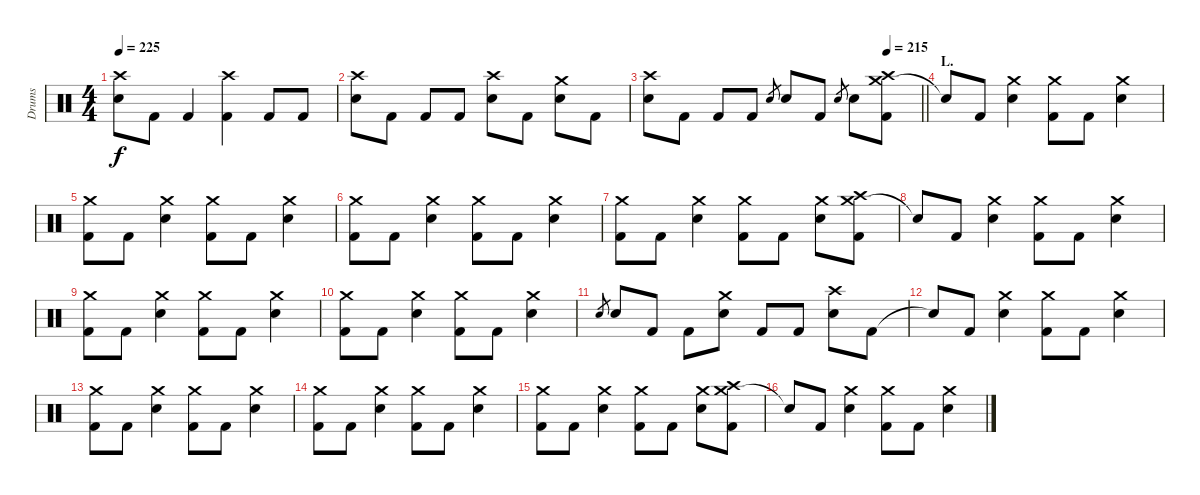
\track ("Drums" "Drums") {instrument percussion}
\staff {score}
\articulation defaults
\ts (4 4)
\tempo 225
\clef neutral
\ks c
("Crash high (hit)" "Electric Snare (hit)").8{dy f} "Kick (hit) 2".8 "Kick (hit) 2".4 ("Crash high (hit)" "Kick (hit) 2").4 "Kick (hit) 2".8 "Kick (hit) 2".8 |
("Crash high (hit)" "Electric Snare (hit)").8 "Kick (hit) 2".8 "Kick (hit) 2".8 "Kick (hit) 2".8 ("Crash high (hit)" "Electric Snare (hit)").8 "Kick (hit) 2".8 ("Crash medium (hit)" "Electric Snare (hit)").8 "Kick (hit) 2".8 |
\tempo (215 0.875)
\barLineRight lightlight
("Crash high (hit)" "Electric Snare (hit)").8 "Kick (hit) 2".8 "Kick (hit) 2".8 "Kick (hit) 2".8 "Electric Snare (hit)".8{gr} "Electric Snare (hit)".8 "Kick (hit) 2".8 "Electric Snare (hit)".8{gr} "Electric Snare (hit)".8 ("Crash medium (hit)" "Crash high (hit)" "Kick (hit) 2").8 |
\section ("" "L.")
"Snare (hit)"{t}.8 "Kick (hit) 2".8 ("Crash medium (hit)" "Electric Snare (hit)").4 ("Crash medium (hit)" "Kick (hit) 2").8 "Kick (hit) 2".8 ("Crash medium (hit)" "Electric Snare (hit)").4 |
("Crash medium (hit)" "Kick (hit) 2").8 "Kick (hit) 2".8 ("Crash medium (hit)" "Electric Snare (hit)").4 ("Crash medium (hit)" "Kick (hit) 2").8 "Kick (hit) 2".8 ("Crash medium (hit)" "Electric Snare (hit)").4 |
("Crash medium (hit)" "Kick (hit) 2").8 "Kick (hit) 2".8 ("Crash medium (hit)" "Electric Snare (hit)").4 ("Crash medium (hit)" "Kick (hit) 2").8 "Kick (hit) 2".8 ("Crash medium (hit)" "Electric Snare (hit)").4 |
("Crash medium (hit)" "Kick (hit) 2").8 "Kick (hit) 2".8 ("Crash medium (hit)" "Electric Snare (hit)").4 ("Crash medium (hit)" "Kick (hit) 2").8 "Kick (hit) 2".8 ("Crash medium (hit)" "Electric Snare (hit)").8 ("Crash medium (hit)" "Crash high (hit)" "Kick (hit) 2").8 |
"Snare (hit)"{t}.8 "Kick (hit) 2".8 ("Crash medium (hit)" "Electric Snare (hit)").4 ("Crash medium (hit)" "Kick (hit) 2").8 "Kick (hit) 2".8 ("Crash medium (hit)" "Electric Snare (hit)").4 |
("Crash medium (hit)" "Kick (hit) 2").8 "Kick (hit) 2".8 ("Crash medium (hit)" "Electric Snare (hit)").4 ("Crash medium (hit)" "Kick (hit) 2").8 "Kick (hit) 2".8 ("Crash medium (hit)" "Electric Snare (hit)").4 |
("Crash medium (hit)" "Kick (hit) 2").8 "Kick (hit) 2".8 ("Crash medium (hit)" "Electric Snare (hit)").4 ("Crash medium (hit)" "Kick (hit) 2").8 "Kick (hit) 2".8 ("Crash medium (hit)" "Electric Snare (hit)").4 |
"Electric Snare (hit)".8{gr} "Electric Snare (hit)".8 "Kick (hit) 2".8 "Kick (hit) 2".8 ("Crash medium (hit)" "Electric Snare (hit)").8 "Kick (hit) 2".8 "Kick (hit) 2".8 ("Crash high (hit)" "Electric Snare (hit)").8 "Kick (hit) 2".8 |
"Snare (hit)"{t}.8 "Kick (hit) 2".8 ("Crash medium (hit)" "Electric Snare (hit)").4 ("Crash medium (hit)" "Kick (hit) 2").8 "Kick (hit) 2".8 ("Crash medium (hit)" "Electric Snare (hit)").4 |
("Crash medium (hit)" "Kick (hit) 2").8 "Kick (hit) 2".8 ("Crash medium (hit)" "Electric Snare (hit)").4 ("Crash medium (hit)" "Kick (hit) 2").8 "Kick (hit) 2".8 ("Crash medium (hit)" "Electric Snare (hit)").4 |
("Crash medium (hit)" "Kick (hit) 2").8 "Kick (hit) 2".8 ("Crash medium (hit)" "Electric Snare (hit)").4 ("Crash medium (hit)" "Kick (hit) 2").8 "Kick (hit) 2".8 ("Crash medium (hit)" "Electric Snare (hit)").4 |
("Crash medium (hit)" "Kick (hit) 2").8 "Kick (hit) 2".8 ("Crash medium (hit)" "Electric Snare (hit)").4 ("Crash medium (hit)" "Kick (hit) 2").8 "Kick (hit) 2".8 ("Crash medium (hit)" "Electric Snare (hit)").8 ("Crash medium (hit)" "Crash high (hit)" "Kick (hit) 2").8 |
"Snare (hit)"{t}.8 "Kick (hit) 2".8 ("Crash medium (hit)" "Electric Snare (hit)").4 ("Crash medium (hit)" "Kick (hit) 2").8 "Kick (hit) 2".8 ("Crash medium (hit)" "Electric Snare (hit)").4
